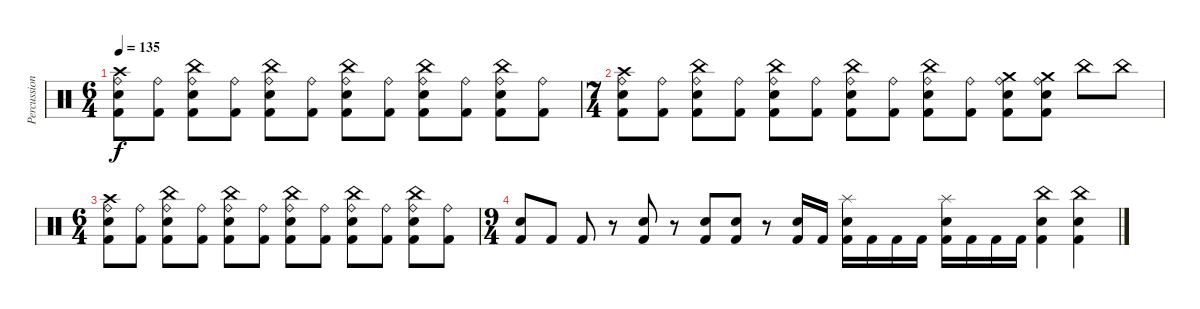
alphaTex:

\track ("Percussion" "Percussion") {instrument percussion}
\staff {score}
\articulation defaults
\ts (6 4)
\tempo 135
\clef neutral
\ks c
("Ride (bell)" "Crash high (hit)" "Electric Snare (hit)" "Kick (hit) 2").8{dy f} ("Ride (bell)" "Kick (hit) 2").8 ("Ride (bell)" "China (hit)" "Electric Snare (hit)" "Kick (hit) 2").8 ("Ride (bell)" "Kick (hit) 2").8 ("Ride (bell)" "China (hit)" "Electric Snare (hit)" "Kick (hit) 2").8 ("Ride (bell)" "Kick (hit) 2").8 ("Ride (bell)" "China (hit)" "Electric Snare (hit)" "Kick (hit) 2").8 ("Ride (bell)" "Kick (hit) 2").8 ("Ride (bell)" "China (hit)" "Electric Snare (hit)" "Kick (hit) 2").8 ("Ride (bell)" "Kick (hit) 2").8 ("Ride (bell)" "China (hit)" "Electric Snare (hit)" "Kick (hit) 2").8 ("Ride (bell)" "Kick (hit) 2").8 |
\ts (7 4)
("Ride (bell)" "Crash high (hit)" "Electric Snare (hit)" "Kick (hit) 2").8 ("Ride (bell)" "Kick (hit) 2").8 ("Ride (bell)" "China (hit)" "Electric Snare (hit)" "Kick (hit) 2").8 ("Ride (bell)" "Kick (hit) 2").8 ("Ride (bell)" "China (hit)" "Electric Snare (hit)" "Kick (hit) 2").8 ("Ride (bell)" "Kick (hit) 2").8 ("Ride (bell)" "China (hit)" "Electric Snare (hit)" "Kick (hit) 2").8 ("Ride (bell)" "Kick (hit) 2").8 ("Ride (bell)" "China (hit)" "Electric Snare (hit)" "Kick (hit) 2").8 ("Ride (bell)" "Kick (hit) 2").8 ("Ride (bell)" "Crash medium (hit)" "Electric Snare (hit)" "Kick (hit) 2").8 ("Ride (bell)" "Crash medium (hit)" "Electric Snare (hit)" "Kick (hit) 2").8 "China (hit)".8 "China (hit)".8 |
\ts (6 4)
("Ride (bell)" "Crash high (hit)" "Electric Snare (hit)" "Kick (hit) 2").8 ("Ride (bell)" "Kick (hit) 2").8 ("Ride (bell)" "China (hit)" "Electric Snare (hit)" "Kick (hit) 2").8 ("Ride (bell)" "Kick (hit) 2").8 ("Ride (bell)" "China (hit)" "Electric Snare (hit)" "Kick (hit) 2").8 ("Ride (bell)" "Kick (hit) 2").8 ("Ride (bell)" "China (hit)" "Electric Snare (hit)" "Kick (hit) 2").8 ("Ride (bell)" "Kick (hit) 2").8 ("Ride (bell)" "China (hit)" "Electric Snare (hit)" "Kick (hit) 2").8 ("Ride (bell)" "Kick (hit) 2").8 ("Ride (bell)" "China (hit)" "Electric Snare (hit)" "Kick (hit) 2").8 ("Ride (bell)" "Kick (hit) 2").8 |
\ts (9 4)
("Electric Snare (hit)" "Kick (hit) 2").8 "Kick (hit) 2".8 "Kick (hit) 2".8 r.8 ("Electric Snare (hit)" "Kick (hit) 2").8 r.8 ("Electric Snare (hit)" "Kick (hit) 2").8 ("Snare (hit) 2" "Kick (hit) 2").8 r.8 ("Snare (hit) 2" "Kick (hit) 2").16 "Kick (hit) 2".16 ("Splash (hit)" "Snare (hit) 2" "Kick (hit) 2").16 "Kick (hit) 2".16 "Kick (hit) 2".16 "Kick (hit) 2".16 ("Splash (hit)" "Snare (hit) 2" "Kick (hit) 2").16 "Kick (hit) 2".16 "Kick (hit) 2".16 "Kick (hit) 2".16 ("China (hit)" "Electric Snare (hit)" "Kick (hit) 2").4 ("China (hit)" "Electric Snare (hit)" "Kick (hit) 2").4
